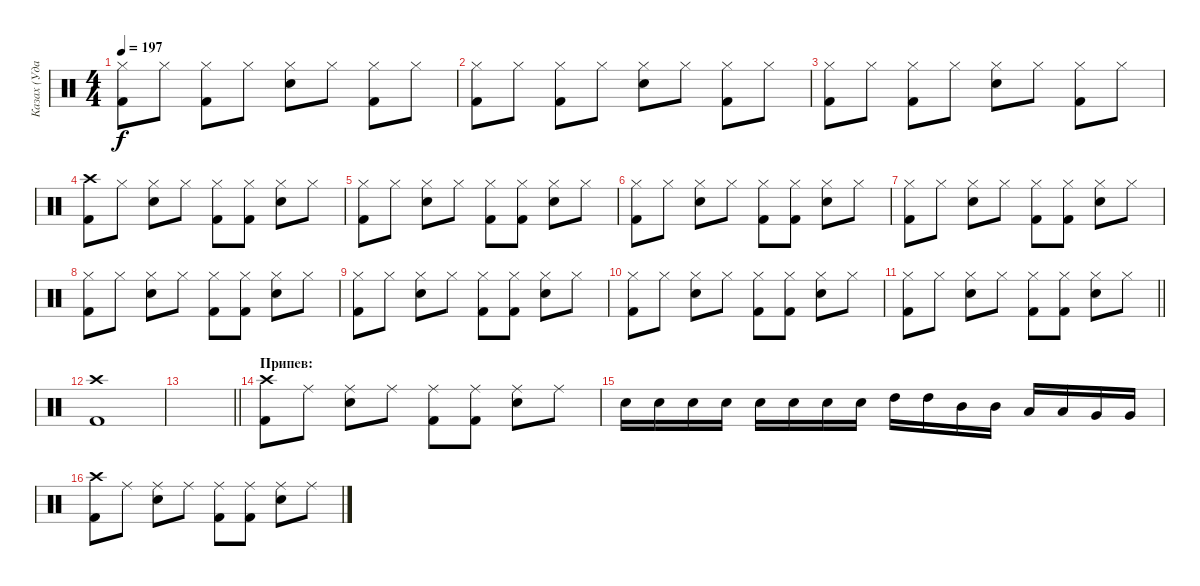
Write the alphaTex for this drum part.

\track ("Казах (Ударные)" "Казах (Уда") {instrument percussion}
\staff {score}
\articulation defaults
\ts (4 4)
\tempo 197
\clef neutral
\ks c
("Hi-Hat (closed)" "Kick (hit) 2").8{dy f} "Hi-Hat (closed)".8 ("Hi-Hat (closed)" "Kick (hit) 2").8 "Hi-Hat (closed)".8 ("Hi-Hat (closed)" "Electric Snare (hit)").8 "Hi-Hat (closed)".8 ("Hi-Hat (closed)" "Kick (hit) 2").8 "Hi-Hat (closed)".8 |
("Hi-Hat (closed)" "Kick (hit) 2").8 "Hi-Hat (closed)".8 ("Hi-Hat (closed)" "Kick (hit) 2").8 "Hi-Hat (closed)".8 ("Hi-Hat (closed)" "Electric Snare (hit)").8 "Hi-Hat (closed)".8 ("Hi-Hat (closed)" "Kick (hit) 2").8 "Hi-Hat (closed)".8 |
("Hi-Hat (closed)" "Kick (hit) 2").8 "Hi-Hat (closed)".8 ("Hi-Hat (closed)" "Kick (hit) 2").8 "Hi-Hat (closed)".8 ("Hi-Hat (closed)" "Electric Snare (hit)").8 "Hi-Hat (closed)".8 ("Hi-Hat (closed)" "Kick (hit) 2").8 "Hi-Hat (closed)".8 |
("Crash high (hit)" "Kick (hit) 2").8 "Hi-Hat (closed)".8 ("Hi-Hat (closed)" "Electric Snare (hit)").8 "Hi-Hat (closed)".8 ("Hi-Hat (closed)" "Kick (hit) 2").8 ("Hi-Hat (closed)" "Kick (hit) 2").8 ("Hi-Hat (closed)" "Electric Snare (hit)").8 "Hi-Hat (closed)".8 |
("Hi-Hat (closed)" "Kick (hit) 2").8 "Hi-Hat (closed)".8 ("Hi-Hat (closed)" "Electric Snare (hit)").8 "Hi-Hat (closed)".8 ("Hi-Hat (closed)" "Kick (hit) 2").8 ("Hi-Hat (closed)" "Kick (hit) 2").8 ("Hi-Hat (closed)" "Electric Snare (hit)").8 "Hi-Hat (closed)".8 |
("Hi-Hat (closed)" "Kick (hit) 2").8 "Hi-Hat (closed)".8 ("Hi-Hat (closed)" "Electric Snare (hit)").8 "Hi-Hat (closed)".8 ("Hi-Hat (closed)" "Kick (hit) 2").8 ("Hi-Hat (closed)" "Kick (hit) 2").8 ("Hi-Hat (closed)" "Electric Snare (hit)").8 "Hi-Hat (closed)".8 |
("Hi-Hat (closed)" "Kick (hit) 2").8 "Hi-Hat (closed)".8 ("Hi-Hat (closed)" "Electric Snare (hit)").8 "Hi-Hat (closed)".8 ("Hi-Hat (closed)" "Kick (hit) 2").8 ("Hi-Hat (closed)" "Kick (hit) 2").8 ("Hi-Hat (closed)" "Electric Snare (hit)").8 "Hi-Hat (closed)".8 |
("Hi-Hat (closed)" "Kick (hit) 2").8 "Hi-Hat (closed)".8 ("Hi-Hat (closed)" "Electric Snare (hit)").8 "Hi-Hat (closed)".8 ("Hi-Hat (closed)" "Kick (hit) 2").8 ("Hi-Hat (closed)" "Kick (hit) 2").8 ("Hi-Hat (closed)" "Electric Snare (hit)").8 "Hi-Hat (closed)".8 |
("Hi-Hat (closed)" "Kick (hit) 2").8 "Hi-Hat (closed)".8 ("Hi-Hat (closed)" "Electric Snare (hit)").8 "Hi-Hat (closed)".8 ("Hi-Hat (closed)" "Kick (hit) 2").8 ("Hi-Hat (closed)" "Kick (hit) 2").8 ("Hi-Hat (closed)" "Electric Snare (hit)").8 "Hi-Hat (closed)".8 |
("Hi-Hat (closed)" "Kick (hit) 2").8 "Hi-Hat (closed)".8 ("Hi-Hat (closed)" "Electric Snare (hit)").8 "Hi-Hat (closed)".8 ("Hi-Hat (closed)" "Kick (hit) 2").8 ("Hi-Hat (closed)" "Kick (hit) 2").8 ("Hi-Hat (closed)" "Electric Snare (hit)").8 "Hi-Hat (closed)".8 |
\barLineRight lightlight
("Hi-Hat (closed)" "Kick (hit) 2").8 "Hi-Hat (closed)".8 ("Hi-Hat (closed)" "Electric Snare (hit)").8 "Hi-Hat (closed)".8 ("Hi-Hat (closed)" "Kick (hit) 2").8 ("Hi-Hat (closed)" "Kick (hit) 2").8 ("Hi-Hat (closed)" "Electric Snare (hit)").8 "Hi-Hat (closed)".8 |
\section ("" "")
("Crash high (hit)" "Kick (hit) 2").1 |
\barLineRight lightlight
|
\section ("" "Припев:")
("Crash high (hit)" "Kick (hit) 2").8 "Ride (middle)".8 ("Ride (middle)" "Electric Snare (hit)").8 "Ride (middle)".8 ("Ride (middle)" "Kick (hit) 2").8 ("Ride (middle)" "Kick (hit) 2").8 ("Ride (middle)" "Electric Snare (hit)").8 "Ride (middle)".8 |
"Electric Snare (hit)".16 "Electric Snare (hit)".16 "Electric Snare (hit)".16 "Electric Snare (hit)".16 "Electric Snare (hit)".16 "Electric Snare (hit)".16 "Electric Snare (hit)".16 "Electric Snare (hit)".16 "High Tom (hit)".16 "High Tom (hit)".16 "Mid Tom (hit)".16 "Mid Tom (hit)".16 "Low Tom (hit)".16 "Low Tom (hit)".16 "Very Low Tom (hit)".16 "Very Low Tom (hit)".16 |
("Crash high (hit)" "Kick (hit) 2").8 "Ride (middle)".8 ("Ride (middle)" "Electric Snare (hit)").8 "Ride (middle)".8 ("Ride (middle)" "Kick (hit) 2").8 ("Ride (middle)" "Kick (hit) 2").8 ("Ride (middle)" "Electric Snare (hit)").8 "Ride (middle)".8
